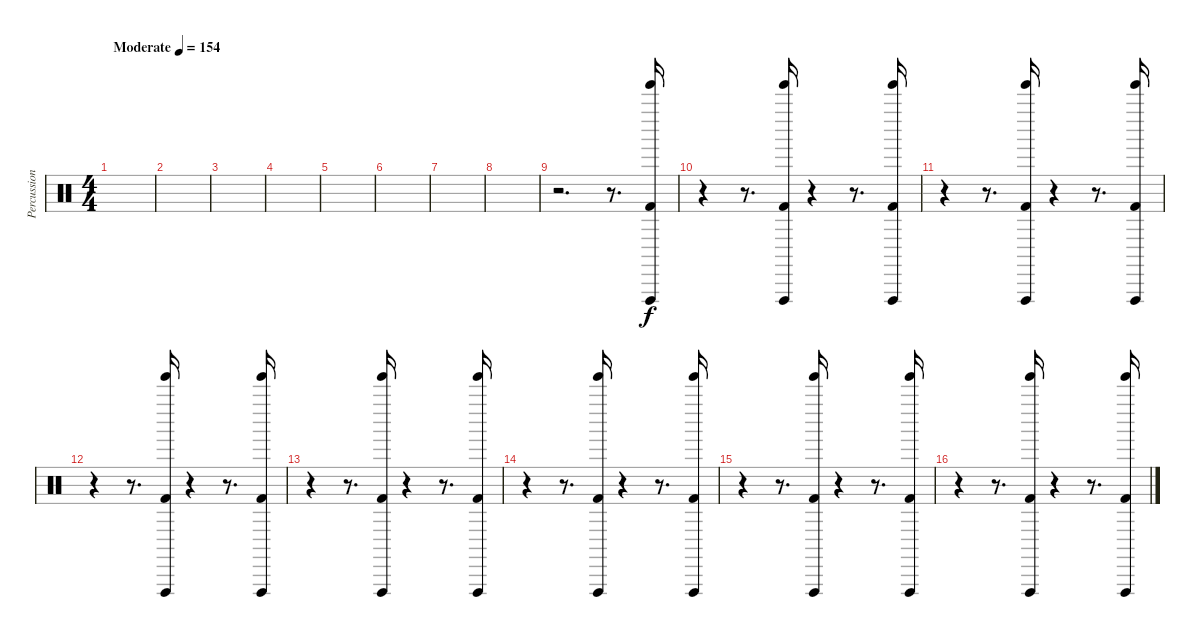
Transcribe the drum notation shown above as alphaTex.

\track ("Percussion" "Percussion") {instrument percussion}
\staff {score}
\articulation defaults
\ts (4 4)
\tempo (154 "Moderate")
\clef neutral
\ks c
|
|
|
|
|
|
|
|
r.2{d} r.8{d volume 4} ("Vibraslap (hit)" "Tinkle Bell (hit)" "Kick (hit) 2").16{volume 7} |
r.4 r.8{d} ("Vibraslap (hit)" "Tinkle Bell (hit)" "Kick (hit) 2").16 r.4 r.8{d} ("Vibraslap (hit)" "Tinkle Bell (hit)" "Kick (hit) 2").16 |
r.4 r.8{d} ("Vibraslap (hit)" "Tinkle Bell (hit)" "Kick (hit) 2").16 r.4 r.8{d} ("Vibraslap (hit)" "Tinkle Bell (hit)" "Kick (hit) 2").16 |
r.4 r.8{d} ("Vibraslap (hit)" "Tinkle Bell (hit)" "Kick (hit) 2").16 r.4 r.8{d} ("Vibraslap (hit)" "Tinkle Bell (hit)" "Kick (hit) 2").16 |
r.4 r.8{d} ("Vibraslap (hit)" "Tinkle Bell (hit)" "Kick (hit) 2").16 r.4 r.8{d} ("Vibraslap (hit)" "Tinkle Bell (hit)" "Kick (hit) 2").16{volume 10} |
r.4 r.8{d} ("Vibraslap (hit)" "Tinkle Bell (hit)" "Kick (hit) 2").16 r.4 r.8{d} ("Vibraslap (hit)" "Tinkle Bell (hit)" "Kick (hit) 2").16 |
r.4 r.8{d} ("Vibraslap (hit)" "Tinkle Bell (hit)" "Kick (hit) 2").16 r.4 r.8{d} ("Vibraslap (hit)" "Tinkle Bell (hit)" "Kick (hit) 2").16 |
r.4 r.8{d} ("Vibraslap (hit)" "Tinkle Bell (hit)" "Kick (hit) 2").16 r.4 r.8{d} ("Vibraslap (hit)" "Tinkle Bell (hit)" "Kick (hit) 2").16
